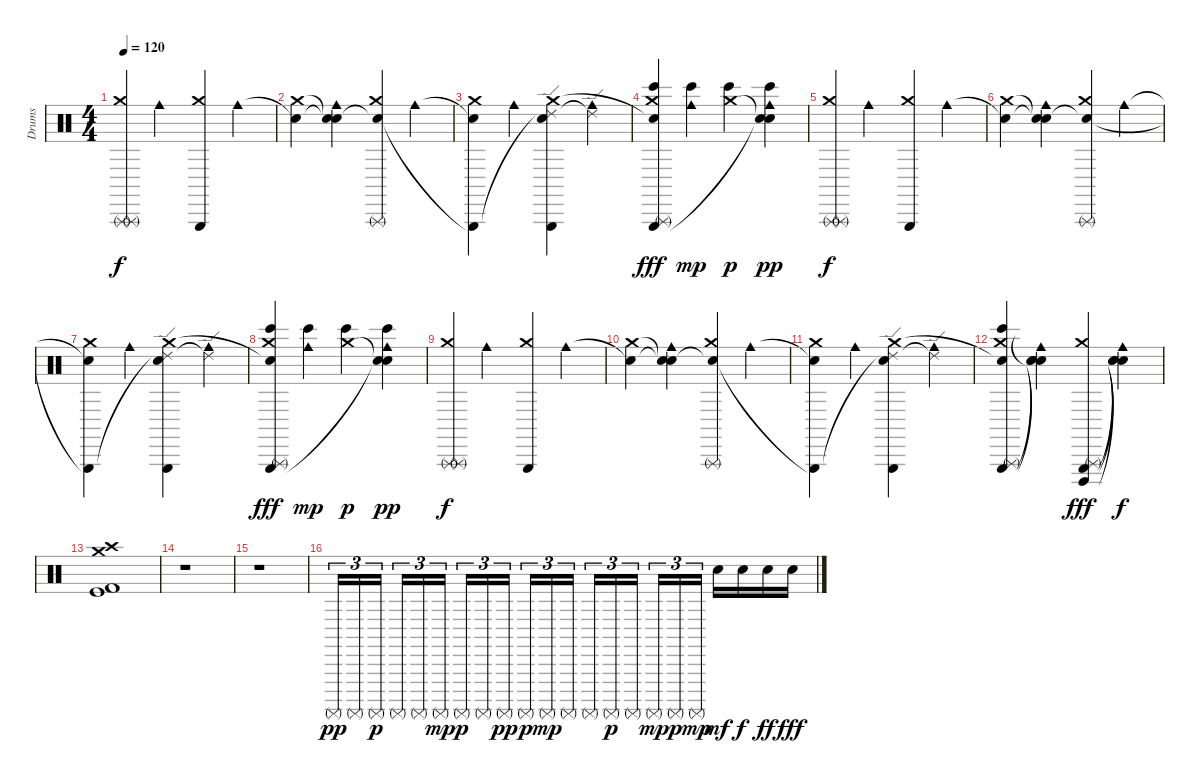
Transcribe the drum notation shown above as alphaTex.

\track ("Drums" "Drums") {instrument percussion}
\staff {score}
\articulation defaults
\ts (4 4)
\tempo 120
\clef neutral
\ks c
("Triangle (rnute)" "Triangle (rnute)" "Crash medium (hit)").4{dy f} "Cowbell medium (hit)".4 ("Triangle (hit)" "Crash medium (hit)").4 "Cowbell medium (hit)".4 |
("Snare (hit)"{t} "Crash medium (hit)").4 ("Snare (hit)"{t} "Snare (hit)"{t} "Cowbell medium (hit)").4 ("Triangle (rnute)" "Snare (hit)"{t} "Crash medium (hit)").4 "Cowbell medium (hit)".4 |
("Snare (hit)"{t} "Triangle (hit)"{t} "Crash medium (hit)").4 "Cowbell medium (hit)".4 ("Ride (edge) 2" "Snare (hit)"{t} "Triangle (hit)" "Crash medium (hit)").4 ("Ride (edge) 2"{t} "Cowbell medium (hit)").4 |
("Bongo High (hit)" "Triangle (rnute)" "Triangle (hit)" "Snare (hit)"{t} "Crash medium (hit)").4{dy fff} ("Bongo High (hit)" "Cowbell medium (hit)").4{dy mp} ("Bongo High (hit)" "Crash medium (hit)").4{dy p} ("Bongo High (hit)" "Snare (hit)"{t} "Snare (hit)"{t} "Cowbell medium (hit)").4{dy pp} |
("Triangle (rnute)" "Triangle (rnute)" "Crash medium (hit)").4{dy f} "Cowbell medium (hit)".4 ("Triangle (hit)" "Crash medium (hit)").4 "Cowbell medium (hit)".4 |
("Snare (hit)"{t} "Crash medium (hit)").4 ("Snare (hit)"{t} "Snare (hit)"{t} "Cowbell medium (hit)").4 ("Triangle (rnute)" "Snare (hit)"{t} "Crash medium (hit)").4 "Cowbell medium (hit)".4 |
("Snare (hit)"{t} "Triangle (hit)"{t} "Crash medium (hit)").4 "Cowbell medium (hit)".4 ("Ride (edge) 2" "Snare (hit)"{t} "Triangle (hit)" "Crash medium (hit)").4 ("Ride (edge) 2"{t} "Cowbell medium (hit)").4 |
("Bongo High (hit)" "Triangle (rnute)" "Triangle (hit)" "Snare (hit)"{t} "Crash medium (hit)").4{dy fff} ("Bongo High (hit)" "Cowbell medium (hit)").4{dy mp} ("Bongo High (hit)" "Crash medium (hit)").4{dy p} ("Bongo High (hit)" "Snare (hit)"{t} "Snare (hit)"{t} "Cowbell medium (hit)").4{dy pp} |
("Triangle (rnute)" "Triangle (rnute)" "Crash medium (hit)").4{dy f} "Cowbell medium (hit)".4 ("Triangle (hit)" "Crash medium (hit)").4 "Cowbell medium (hit)".4 |
("Snare (hit)"{t} "Crash medium (hit)").4 ("Snare (hit)"{t} "Snare (hit)"{t} "Cowbell medium (hit)").4 ("Triangle (rnute)" "Snare (hit)"{t} "Crash medium (hit)").4 "Cowbell medium (hit)".4 |
("Snare (hit)"{t} "Triangle (hit)"{t} "Crash medium (hit)").4 "Cowbell medium (hit)".4 ("Ride (edge) 2" "Snare (hit)"{t} "Triangle (hit)" "Crash medium (hit)").4 ("Ride (edge) 2"{t} "Cowbell medium (hit)").4 |
("Bongo High (hit)" "Triangle (rnute)" "Triangle (hit)" "Snare (hit)"{t} "Crash medium (hit)").4 ("Snare (hit)"{t} "Snare (hit)"{t} "Snare (hit)"{t} "Cowbell medium (hit)").4 ("Triangle (rnute)" "Triangle (hit)" "Cuica (open)" "Crash medium (hit)").4{dy fff} ("Snare (hit)"{t} "Snare (hit)"{t} "Snare (hit)"{t} "Cowbell medium (hit)").4{dy f} |
("Crash medium (hit)" "Crash high (hit)" "Kick (hit)" "Kick (hit) 2").1 |
r.1 |
r.1 |
"Surdo (mute)".16{tu (3 2) dy pp} "Surdo (mute)".16{tu (3 2)} "Surdo (mute)".16{tu (3 2) dy p} "Surdo (mute)".16{tu (3 2)} "Surdo (mute)".16{tu (3 2)} "Surdo (mute)".16{tu (3 2) dy mp} "Surdo (mute)".16{tu (3 2) dy p} "Surdo (mute)".16{tu (3 2)} "Surdo (mute)".16{tu (3 2) dy pp} "Surdo (mute)".16{tu (3 2) dy p} "Surdo (mute)".16{tu (3 2) dy mp} "Surdo (mute)".16{tu (3 2)} "Surdo (mute)".16{tu (3 2)} "Surdo (mute)".16{tu (3 2) dy p} "Surdo (mute)".16{tu (3 2)} "Surdo (mute)".16{tu (3 2) dy mp} "Surdo (mute)".16{tu (3 2) dy p} "Surdo (mute)".16{tu (3 2) dy mp} "Snare (hit) 2".16{dy mf} "Snare (hit) 2".16{dy f} "Snare (hit) 2".16{dy ff} "Snare (hit) 2".16{dy fff}
